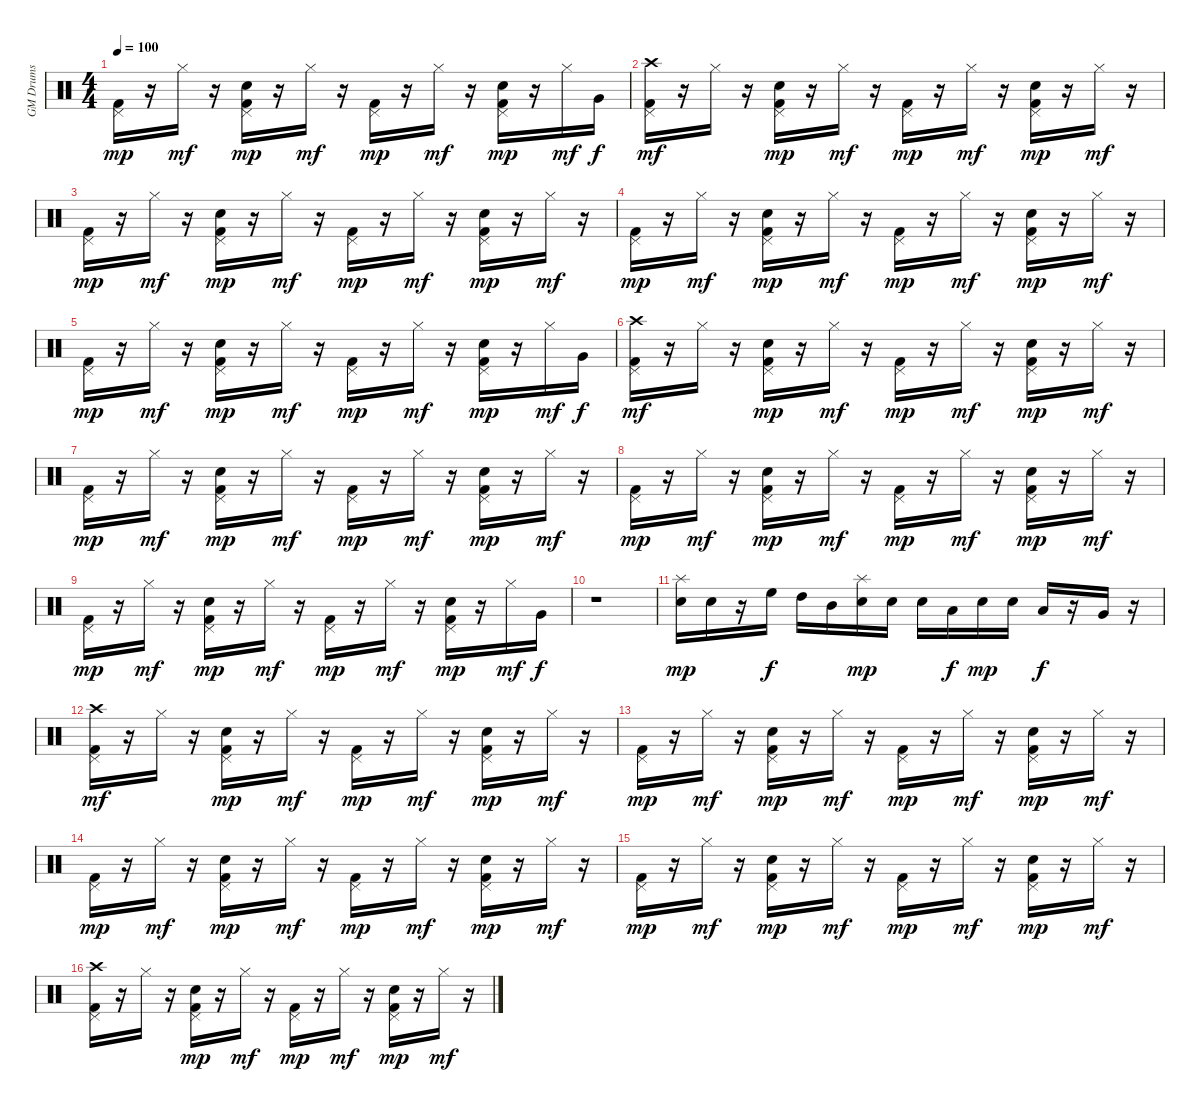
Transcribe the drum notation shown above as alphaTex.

\track ("GM Drums" "GM Drums") {instrument percussion}
\staff {score}
\articulation defaults
\ts (4 4)
\tempo 100
\clef neutral
\ks c
("Kick (hit) 2" "Pedal Hi-Hat (hit)").16{dy mp} r.16 "Hi-Hat (closed)".16{dy mf} r.16 ("Kick (hit) 2" "Snare (hit) 2" "Pedal Hi-Hat (hit)").16{dy mp} r.16 "Hi-Hat (closed)".16{dy mf} r.16 ("Kick (hit) 2" "Pedal Hi-Hat (hit)").16{dy mp} r.16 "Hi-Hat (closed)".16{dy mf} r.16 ("Kick (hit) 2" "Snare (hit) 2" "Pedal Hi-Hat (hit)").16{dy mp} r.16 "Hi-Hat (closed)".16{dy mf} "Very Low Tom (hit)".16{dy f} |
("Kick (hit) 2" "Pedal Hi-Hat (hit)" "Crash high (hit)").16{dy mf} r.16 "Hi-Hat (closed)".16 r.16 ("Kick (hit) 2" "Snare (hit) 2" "Pedal Hi-Hat (hit)").16{dy mp} r.16 "Hi-Hat (closed)".16{dy mf} r.16 ("Kick (hit) 2" "Pedal Hi-Hat (hit)").16{dy mp} r.16 "Hi-Hat (closed)".16{dy mf} r.16 ("Kick (hit) 2" "Snare (hit) 2" "Pedal Hi-Hat (hit)").16{dy mp} r.16 "Hi-Hat (closed)".16{dy mf} r.16 |
("Kick (hit) 2" "Pedal Hi-Hat (hit)").16{dy mp} r.16 "Hi-Hat (closed)".16{dy mf} r.16 ("Kick (hit) 2" "Snare (hit) 2" "Pedal Hi-Hat (hit)").16{dy mp} r.16 "Hi-Hat (closed)".16{dy mf} r.16 ("Kick (hit) 2" "Pedal Hi-Hat (hit)").16{dy mp} r.16 "Hi-Hat (closed)".16{dy mf} r.16 ("Kick (hit) 2" "Snare (hit) 2" "Pedal Hi-Hat (hit)").16{dy mp} r.16 "Hi-Hat (closed)".16{dy mf} r.16 |
("Kick (hit) 2" "Pedal Hi-Hat (hit)").16{dy mp} r.16 "Hi-Hat (closed)".16{dy mf} r.16 ("Kick (hit) 2" "Snare (hit) 2" "Pedal Hi-Hat (hit)").16{dy mp} r.16 "Hi-Hat (closed)".16{dy mf} r.16 ("Kick (hit) 2" "Pedal Hi-Hat (hit)").16{dy mp} r.16 "Hi-Hat (closed)".16{dy mf} r.16 ("Kick (hit) 2" "Snare (hit) 2" "Pedal Hi-Hat (hit)").16{dy mp} r.16 "Hi-Hat (closed)".16{dy mf} r.16 |
("Kick (hit) 2" "Pedal Hi-Hat (hit)").16{dy mp} r.16 "Hi-Hat (closed)".16{dy mf} r.16 ("Kick (hit) 2" "Snare (hit) 2" "Pedal Hi-Hat (hit)").16{dy mp} r.16 "Hi-Hat (closed)".16{dy mf} r.16 ("Kick (hit) 2" "Pedal Hi-Hat (hit)").16{dy mp} r.16 "Hi-Hat (closed)".16{dy mf} r.16 ("Kick (hit) 2" "Snare (hit) 2" "Pedal Hi-Hat (hit)").16{dy mp} r.16 "Hi-Hat (closed)".16{dy mf} "Very Low Tom (hit)".16{dy f} |
("Kick (hit) 2" "Pedal Hi-Hat (hit)" "Crash high (hit)").16{dy mf} r.16 "Hi-Hat (closed)".16 r.16 ("Kick (hit) 2" "Snare (hit) 2" "Pedal Hi-Hat (hit)").16{dy mp} r.16 "Hi-Hat (closed)".16{dy mf} r.16 ("Kick (hit) 2" "Pedal Hi-Hat (hit)").16{dy mp} r.16 "Hi-Hat (closed)".16{dy mf} r.16 ("Kick (hit) 2" "Snare (hit) 2" "Pedal Hi-Hat (hit)").16{dy mp} r.16 "Hi-Hat (closed)".16{dy mf} r.16 |
("Kick (hit) 2" "Pedal Hi-Hat (hit)").16{dy mp} r.16 "Hi-Hat (closed)".16{dy mf} r.16 ("Kick (hit) 2" "Snare (hit) 2" "Pedal Hi-Hat (hit)").16{dy mp} r.16 "Hi-Hat (closed)".16{dy mf} r.16 ("Kick (hit) 2" "Pedal Hi-Hat (hit)").16{dy mp} r.16 "Hi-Hat (closed)".16{dy mf} r.16 ("Kick (hit) 2" "Snare (hit) 2" "Pedal Hi-Hat (hit)").16{dy mp} r.16 "Hi-Hat (closed)".16{dy mf} r.16 |
("Kick (hit) 2" "Pedal Hi-Hat (hit)").16{dy mp} r.16 "Hi-Hat (closed)".16{dy mf} r.16 ("Kick (hit) 2" "Snare (hit) 2" "Pedal Hi-Hat (hit)").16{dy mp} r.16 "Hi-Hat (closed)".16{dy mf} r.16 ("Kick (hit) 2" "Pedal Hi-Hat (hit)").16{dy mp} r.16 "Hi-Hat (closed)".16{dy mf} r.16 ("Kick (hit) 2" "Snare (hit) 2" "Pedal Hi-Hat (hit)").16{dy mp} r.16 "Hi-Hat (closed)".16{dy mf} r.16 |
("Kick (hit) 2" "Pedal Hi-Hat (hit)").16{dy mp} r.16 "Hi-Hat (closed)".16{dy mf} r.16 ("Kick (hit) 2" "Snare (hit) 2" "Pedal Hi-Hat (hit)").16{dy mp} r.16 "Hi-Hat (closed)".16{dy mf} r.16 ("Kick (hit) 2" "Pedal Hi-Hat (hit)").16{dy mp} r.16 "Hi-Hat (closed)".16{dy mf} r.16 ("Kick (hit) 2" "Snare (hit) 2" "Pedal Hi-Hat (hit)").16{dy mp} r.16 "Hi-Hat (closed)".16{dy mf} "Very Low Tom (hit)".16{dy f} |
r.1 |
("Snare (hit) 2" "Splash (hit)").16{dy mp} "Electric Snare (hit)".16 r.16 "High Floor Tom (hit)".16{dy f} "High Tom (hit)".16 "Mid Tom (hit)".16 ("Snare (hit) 2" "Splash (hit)").16{dy mp} "Electric Snare (hit)".16 "Snare (hit) 2".16 "Low Floor Tom (hit)".16{dy f} "Electric Snare (hit)".16{dy mp} "Electric Snare (hit)".16 "Low Floor Tom (hit)".16{dy f} r.16 "Very Low Tom (hit)".16 r.16 |
("Kick (hit) 2" "Pedal Hi-Hat (hit)" "Crash high (hit)").16{dy mf} r.16 "Hi-Hat (closed)".16 r.16 ("Kick (hit) 2" "Snare (hit) 2" "Pedal Hi-Hat (hit)").16{dy mp} r.16 "Hi-Hat (closed)".16{dy mf} r.16 ("Kick (hit) 2" "Pedal Hi-Hat (hit)").16{dy mp} r.16 "Hi-Hat (closed)".16{dy mf} r.16 ("Kick (hit) 2" "Snare (hit) 2" "Pedal Hi-Hat (hit)").16{dy mp} r.16 "Hi-Hat (closed)".16{dy mf} r.16 |
("Kick (hit) 2" "Pedal Hi-Hat (hit)").16{dy mp} r.16 "Hi-Hat (closed)".16{dy mf} r.16 ("Kick (hit) 2" "Snare (hit) 2" "Pedal Hi-Hat (hit)").16{dy mp} r.16 "Hi-Hat (closed)".16{dy mf} r.16 ("Kick (hit) 2" "Pedal Hi-Hat (hit)").16{dy mp} r.16 "Hi-Hat (closed)".16{dy mf} r.16 ("Kick (hit) 2" "Snare (hit) 2" "Pedal Hi-Hat (hit)").16{dy mp} r.16 "Hi-Hat (closed)".16{dy mf} r.16 |
("Kick (hit) 2" "Pedal Hi-Hat (hit)").16{dy mp} r.16 "Hi-Hat (closed)".16{dy mf} r.16 ("Kick (hit) 2" "Snare (hit) 2" "Pedal Hi-Hat (hit)").16{dy mp} r.16 "Hi-Hat (closed)".16{dy mf} r.16 ("Kick (hit) 2" "Pedal Hi-Hat (hit)").16{dy mp} r.16 "Hi-Hat (closed)".16{dy mf} r.16 ("Kick (hit) 2" "Snare (hit) 2" "Pedal Hi-Hat (hit)").16{dy mp} r.16 "Hi-Hat (closed)".16{dy mf} r.16 |
("Kick (hit) 2" "Pedal Hi-Hat (hit)").16{dy mp} r.16 "Hi-Hat (closed)".16{dy mf} r.16 ("Kick (hit) 2" "Snare (hit) 2" "Pedal Hi-Hat (hit)").16{dy mp} r.16 "Hi-Hat (closed)".16{dy mf} r.16 ("Kick (hit) 2" "Pedal Hi-Hat (hit)").16{dy mp} r.16 "Hi-Hat (closed)".16{dy mf} r.16 ("Kick (hit) 2" "Snare (hit) 2" "Pedal Hi-Hat (hit)").16{dy mp} r.16 "Hi-Hat (closed)".16{dy mf} r.16 |
("Kick (hit) 2" "Pedal Hi-Hat (hit)" "Crash high (hit)").16 r.16 "Hi-Hat (closed)".16 r.16 ("Kick (hit) 2" "Snare (hit) 2" "Pedal Hi-Hat (hit)").16{dy mp} r.16 "Hi-Hat (closed)".16{dy mf} r.16 ("Kick (hit) 2" "Pedal Hi-Hat (hit)").16{dy mp} r.16 "Hi-Hat (closed)".16{dy mf} r.16 ("Kick (hit) 2" "Snare (hit) 2" "Pedal Hi-Hat (hit)").16{dy mp} r.16 "Hi-Hat (closed)".16{dy mf} r.16
